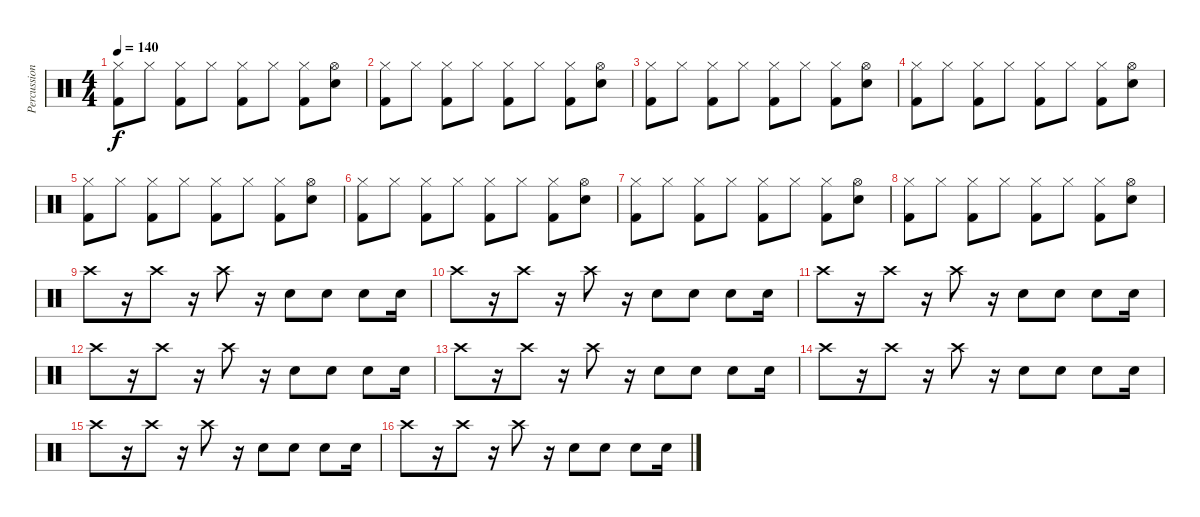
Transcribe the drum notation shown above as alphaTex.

\track ("Percussion" "Percussion") {instrument percussion}
\staff {score}
\articulation defaults
\ts (4 4)
\tempo 140
\clef neutral
\ks c
("Hi-Hat (closed)" "Kick (hit) 2").8{dy f} "Hi-Hat (closed)".8 ("Hi-Hat (closed)" "Kick (hit) 2").8 "Hi-Hat (closed)".8 ("Hi-Hat (closed)" "Kick (hit) 2").8 "Hi-Hat (closed)".8 ("Hi-Hat (closed)" "Kick (hit) 2").8 ("Hi-Hat (open)" "Electric Snare (hit)").8 |
("Hi-Hat (closed)" "Kick (hit) 2").8 "Hi-Hat (closed)".8 ("Hi-Hat (closed)" "Kick (hit) 2").8 "Hi-Hat (closed)".8 ("Hi-Hat (closed)" "Kick (hit) 2").8 "Hi-Hat (closed)".8 ("Hi-Hat (closed)" "Kick (hit) 2").8 ("Hi-Hat (open)" "Electric Snare (hit)").8 |
("Hi-Hat (closed)" "Kick (hit) 2").8 "Hi-Hat (closed)".8 ("Hi-Hat (closed)" "Kick (hit) 2").8 "Hi-Hat (closed)".8 ("Hi-Hat (closed)" "Kick (hit) 2").8 "Hi-Hat (closed)".8 ("Hi-Hat (closed)" "Kick (hit) 2").8 ("Hi-Hat (open)" "Electric Snare (hit)").8 |
("Hi-Hat (closed)" "Kick (hit) 2").8 "Hi-Hat (closed)".8 ("Hi-Hat (closed)" "Kick (hit) 2").8 "Hi-Hat (closed)".8 ("Hi-Hat (closed)" "Kick (hit) 2").8 "Hi-Hat (closed)".8 ("Hi-Hat (closed)" "Kick (hit) 2").8 ("Hi-Hat (open)" "Electric Snare (hit)").8 |
("Hi-Hat (closed)" "Kick (hit) 2").8 "Hi-Hat (closed)".8 ("Hi-Hat (closed)" "Kick (hit) 2").8 "Hi-Hat (closed)".8 ("Hi-Hat (closed)" "Kick (hit) 2").8 "Hi-Hat (closed)".8 ("Hi-Hat (closed)" "Kick (hit) 2").8 ("Hi-Hat (open)" "Electric Snare (hit)").8 |
("Hi-Hat (closed)" "Kick (hit) 2").8 "Hi-Hat (closed)".8 ("Hi-Hat (closed)" "Kick (hit) 2").8 "Hi-Hat (closed)".8 ("Hi-Hat (closed)" "Kick (hit) 2").8 "Hi-Hat (closed)".8 ("Hi-Hat (closed)" "Kick (hit) 2").8 ("Hi-Hat (open)" "Electric Snare (hit)").8 |
("Hi-Hat (closed)" "Kick (hit) 2").8 "Hi-Hat (closed)".8 ("Hi-Hat (closed)" "Kick (hit) 2").8 "Hi-Hat (closed)".8 ("Hi-Hat (closed)" "Kick (hit) 2").8 "Hi-Hat (closed)".8 ("Hi-Hat (closed)" "Kick (hit) 2").8 ("Hi-Hat (open)" "Electric Snare (hit)").8 |
("Hi-Hat (closed)" "Kick (hit) 2").8 "Hi-Hat (closed)".8 ("Hi-Hat (closed)" "Kick (hit) 2").8 "Hi-Hat (closed)".8 ("Hi-Hat (closed)" "Kick (hit) 2").8 "Hi-Hat (closed)".8 ("Hi-Hat (closed)" "Kick (hit) 2").8 ("Hi-Hat (open)" "Electric Snare (hit)").8 |
"Crash high (hit)".8 r.16 "Crash high (hit)".8 r.16 "Crash high (hit)".8 r.16 "Electric Snare (hit)".8 "Electric Snare (hit)".8 "Electric Snare (hit)".8 "Electric Snare (hit)".16 |
"Crash high (hit)".8 r.16 "Crash high (hit)".8 r.16 "Crash high (hit)".8 r.16 "Electric Snare (hit)".8 "Electric Snare (hit)".8 "Electric Snare (hit)".8 "Electric Snare (hit)".16 |
"Crash high (hit)".8 r.16 "Crash high (hit)".8 r.16 "Crash high (hit)".8 r.16 "Electric Snare (hit)".8 "Electric Snare (hit)".8 "Electric Snare (hit)".8 "Electric Snare (hit)".16 |
"Crash high (hit)".8 r.16 "Crash high (hit)".8 r.16 "Crash high (hit)".8 r.16 "Electric Snare (hit)".8 "Electric Snare (hit)".8 "Electric Snare (hit)".8 "Electric Snare (hit)".16 |
"Crash high (hit)".8 r.16 "Crash high (hit)".8 r.16 "Crash high (hit)".8 r.16 "Electric Snare (hit)".8 "Electric Snare (hit)".8 "Electric Snare (hit)".8 "Electric Snare (hit)".16 |
"Crash high (hit)".8 r.16 "Crash high (hit)".8 r.16 "Crash high (hit)".8 r.16 "Electric Snare (hit)".8 "Electric Snare (hit)".8 "Electric Snare (hit)".8 "Electric Snare (hit)".16 |
"Crash high (hit)".8 r.16 "Crash high (hit)".8 r.16 "Crash high (hit)".8 r.16 "Electric Snare (hit)".8 "Electric Snare (hit)".8 "Electric Snare (hit)".8 "Electric Snare (hit)".16 |
"Crash high (hit)".8 r.16 "Crash high (hit)".8 r.16 "Crash high (hit)".8 r.16 "Electric Snare (hit)".8 "Electric Snare (hit)".8 "Electric Snare (hit)".8 "Electric Snare (hit)".16
